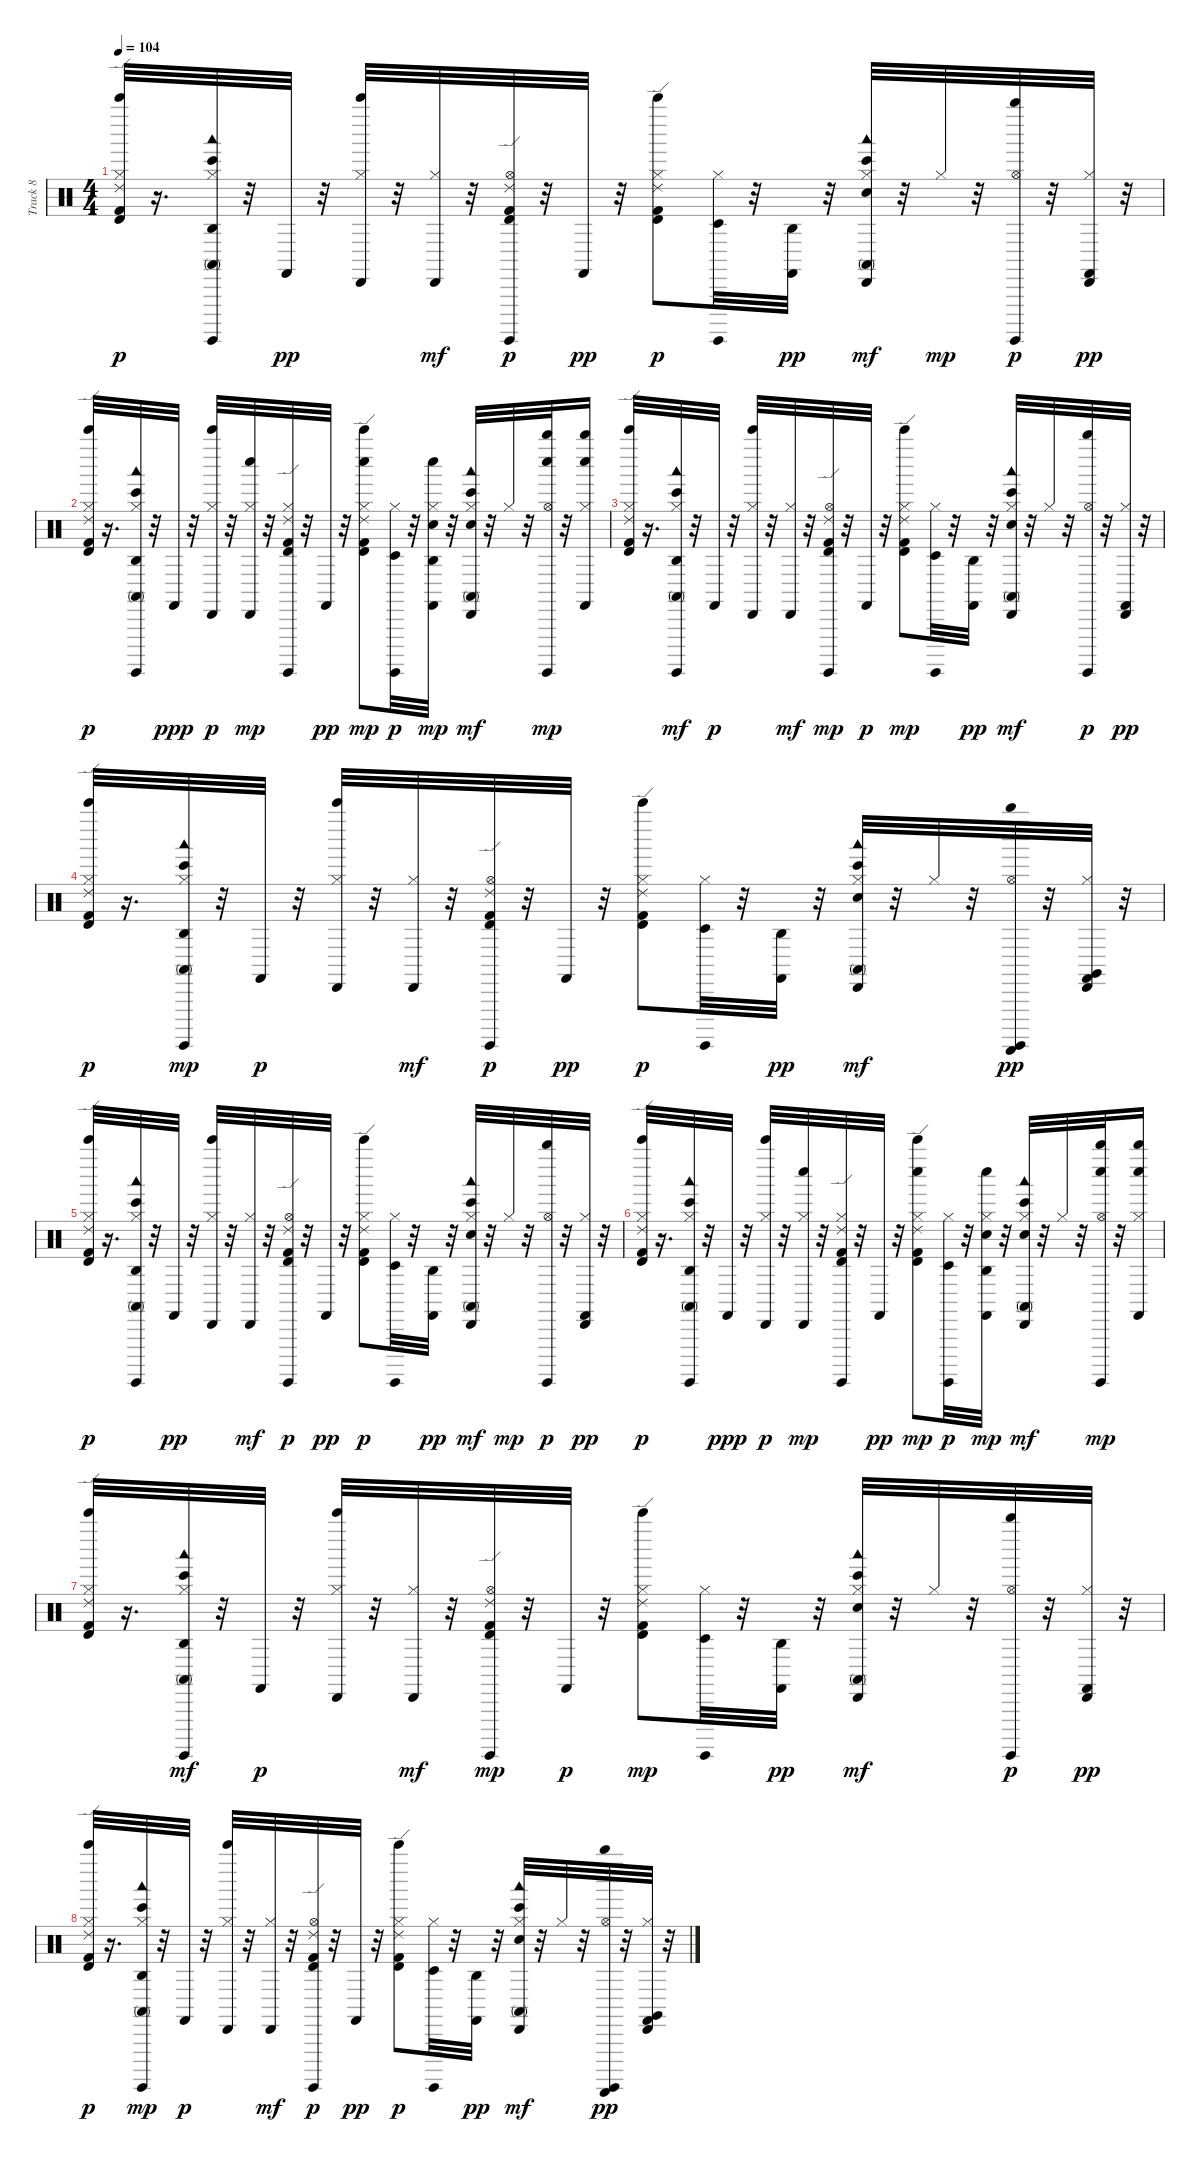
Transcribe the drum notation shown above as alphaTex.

\track ("Track 8" "Track 8") {instrument percussion}
\staff {score}
\articulation defaults
\ts (4 4)
\tempo 104
\clef neutral
\ks c
("Ride (edge) 2" "Timbale high (hit)" "Kick (hit) 2" "Hi-Hat (closed)" "Bell Tree (hit)").32{dy p} r.16{d} ("Bongo High (hit)" "Agogo high (hit)" "Conga high (mute)" "Hi-Hat (closed)" "Woodblock low (hit)" "Surdo (hit)").32 r.32 "Castanets (hit)".32{dy pp} r.32 ("Cabasa (hit)" "Hi-Hat (closed)" "Bell Tree (hit)").32 r.32 ("Cabasa (hit)" "Hi-Hat (closed)").32{dy mf} r.32 ("Ride (edge) 2" "Timbale high (hit)" "Kick (hit) 2" "Hi-Hat (open)" "Surdo (hit)").32{dy p} r.32 "Castanets (hit)".32{dy pp} r.32 ("Ride (edge) 2" "Timbale high (hit)" "Kick (hit) 2" "Hi-Hat (closed)" "Bell Tree (hit)").8{dy p} ("Timbale low (hit)" "Hi-Hat (closed)" "Surdo (hit)").32 r.32 ("Agogo high (hit)" "Castanets (hit)").32{dy pp} r.32 ("Conga high (mute)" "Cabasa (hit)" "Bongo High (hit)" "Electric Snare (hit)" "Hi-Hat (closed)" "Woodblock low (hit)").32{dy mf} r.32 "Hi-Hat (closed)".32{dy mp} r.32 ("Whistle high (hit)" "Hi-Hat (open)" "Surdo (hit)").32{dy p} r.32 ("Cabasa (hit)" "Hi-Hat (closed)" "Castanets (hit)").32{dy pp} r.32 |
("Ride (edge) 2" "Timbale high (hit)" "Kick (hit) 2" "Hi-Hat (closed)" "Bell Tree (hit)").32{dy p} r.16{d} ("Conga high (mute)" "Agogo high (hit)" "Bongo High (hit)" "Hi-Hat (closed)" "Woodblock low (hit)" "Surdo (hit)").32 r.32 "Castanets (hit)".32{dy ppp} r.32 ("Cabasa (hit)" "Hi-Hat (closed)" "Bell Tree (hit)").32{dy p} r.32 ("Cabasa (hit)" "Hi-Hat (closed)" "Whistle low (hit)").32{dy mp} r.32 ("Ride (edge) 2" "Timbale high (hit)" "Kick (hit) 2" "Hi-Hat (closed)" "Surdo (hit)").32 r.32 "Castanets (hit)".32{dy pp} r.32 ("Ride (edge) 2" "Timbale high (hit)" "Kick (hit) 2" "Hi-Hat (closed)" "Bell Tree (hit)" "Whistle low (hit)").8{dy mp} ("Timbale low (hit)" "Hi-Hat (closed)" "Surdo (hit)").32{dy p} r.32 ("Agogo high (hit)" "Electric Snare (hit)" "Hi-Hat (closed)" "Castanets (hit)" "Whistle low (hit)").32{dy mp} r.32 ("Bongo High (hit)" "Cabasa (hit)" "Conga high (mute)" "Hi-Hat (closed)" "Electric Snare (hit)" "Woodblock low (hit)").32{dy mf} r.32 "Hi-Hat (closed)".32 r.32 ("Whistle high (hit)" "Hi-Hat (open)" "Surdo (hit)" "Whistle low (hit)").32{dy mp} r.32 ("Whistle high (hit)" "Hi-Hat (closed)" "Castanets (hit)" "Whistle low (hit)").16 |
("Ride (edge) 2" "Timbale high (hit)" "Kick (hit) 2" "Hi-Hat (closed)" "Bell Tree (hit)").32 r.16{d} ("Bongo High (hit)" "Agogo high (hit)" "Conga high (mute)" "Hi-Hat (closed)" "Surdo (hit)" "Woodblock low (hit)").32{dy mf} r.32 "Castanets (hit)".32{dy p} r.32 ("Cabasa (hit)" "Hi-Hat (closed)" "Bell Tree (hit)").32 r.32 ("Cabasa (hit)" "Hi-Hat (closed)").32{dy mf} r.32 ("Ride (edge) 2" "Timbale high (hit)" "Kick (hit) 2" "Hi-Hat (open)" "Surdo (hit)").32{dy mp} r.32 "Castanets (hit)".32{dy p} r.32 ("Ride (edge) 2" "Timbale high (hit)" "Kick (hit) 2" "Hi-Hat (closed)" "Bell Tree (hit)").8{dy mp} ("Timbale low (hit)" "Hi-Hat (closed)" "Surdo (hit)").32 r.32 ("Agogo high (hit)" "Castanets (hit)").32{dy pp} r.32 ("Bongo High (hit)" "Cabasa (hit)" "Conga high (mute)" "Electric Snare (hit)" "Hi-Hat (closed)" "Woodblock low (hit)").32{dy mf} r.32 "Hi-Hat (closed)".32 r.32 ("Whistle high (hit)" "Hi-Hat (open)" "Surdo (hit)").32{dy p} r.32 ("Cabasa (hit)" "Hi-Hat (closed)" "Castanets (hit)").32{dy pp} r.32 |
("Ride (edge) 2" "Timbale high (hit)" "Kick (hit) 2" "Hi-Hat (closed)" "Bell Tree (hit)").32{dy p} r.16{d} ("Bongo High (hit)" "Agogo high (hit)" "Conga high (mute)" "Hi-Hat (closed)" "Woodblock low (hit)" "Surdo (hit)").32{dy mp} r.32 "Castanets (hit)".32{dy p} r.32 ("Cabasa (hit)" "Hi-Hat (closed)" "Bell Tree (hit)").32 r.32 ("Cabasa (hit)" "Hi-Hat (closed)").32{dy mf} r.32 ("Ride (edge) 2" "Timbale high (hit)" "Kick (hit) 2" "Hi-Hat (open)" "Surdo (hit)").32{dy p} r.32 "Castanets (hit)".32{dy pp} r.32 ("Ride (edge) 2" "Timbale high (hit)" "Kick (hit) 2" "Hi-Hat (closed)" "Bell Tree (hit)").8{dy p} ("Timbale low (hit)" "Hi-Hat (closed)" "Surdo (hit)").32 r.32 ("Agogo high (hit)" "Castanets (hit)").32{dy pp} r.32 ("Bongo High (hit)" "Cabasa (hit)" "Conga high (mute)" "Electric Snare (hit)" "Hi-Hat (closed)" "Woodblock low (hit)").32{dy mf} r.32 "Hi-Hat (closed)".32 r.32 ("Whistle high (hit)" "Hi-Hat (open)" "Surdo (hit)" "Guiro (scrap-return)").32{dy pp} r.32 ("Cabasa (hit)" "Hi-Hat (closed)" "Castanets (hit)" "Claves (hit)").32 r.32 |
("Ride (edge) 2" "Timbale high (hit)" "Kick (hit) 2" "Hi-Hat (closed)" "Bell Tree (hit)").32{dy p} r.16{d} ("Bongo High (hit)" "Agogo high (hit)" "Conga high (mute)" "Hi-Hat (closed)" "Woodblock low (hit)" "Surdo (hit)").32 r.32 "Castanets (hit)".32{dy pp} r.32 ("Cabasa (hit)" "Hi-Hat (closed)" "Bell Tree (hit)").32 r.32 ("Cabasa (hit)" "Hi-Hat (closed)").32{dy mf} r.32 ("Ride (edge) 2" "Timbale high (hit)" "Kick (hit) 2" "Hi-Hat (open)" "Surdo (hit)").32{dy p} r.32 "Castanets (hit)".32{dy pp} r.32 ("Ride (edge) 2" "Timbale high (hit)" "Kick (hit) 2" "Hi-Hat (closed)" "Bell Tree (hit)").8{dy p} ("Timbale low (hit)" "Hi-Hat (closed)" "Surdo (hit)").32 r.32 ("Agogo high (hit)" "Castanets (hit)").32{dy pp} r.32 ("Conga high (mute)" "Cabasa (hit)" "Bongo High (hit)" "Electric Snare (hit)" "Hi-Hat (closed)" "Woodblock low (hit)").32{dy mf} r.32 "Hi-Hat (closed)".32{dy mp} r.32 ("Whistle high (hit)" "Hi-Hat (open)" "Surdo (hit)").32{dy p} r.32 ("Cabasa (hit)" "Hi-Hat (closed)" "Castanets (hit)").32{dy pp} r.32 |
("Ride (edge) 2" "Timbale high (hit)" "Kick (hit) 2" "Hi-Hat (closed)" "Bell Tree (hit)").32{dy p} r.16{d} ("Conga high (mute)" "Agogo high (hit)" "Bongo High (hit)" "Hi-Hat (closed)" "Woodblock low (hit)" "Surdo (hit)").32 r.32 "Castanets (hit)".32{dy ppp} r.32 ("Cabasa (hit)" "Hi-Hat (closed)" "Bell Tree (hit)").32{dy p} r.32 ("Cabasa (hit)" "Hi-Hat (closed)" "Whistle low (hit)").32{dy mp} r.32 ("Ride (edge) 2" "Timbale high (hit)" "Kick (hit) 2" "Hi-Hat (closed)" "Surdo (hit)").32 r.32 "Castanets (hit)".32{dy pp} r.32 ("Ride (edge) 2" "Timbale high (hit)" "Kick (hit) 2" "Hi-Hat (closed)" "Bell Tree (hit)" "Whistle low (hit)").8{dy mp} ("Timbale low (hit)" "Hi-Hat (closed)" "Surdo (hit)").32{dy p} r.32 ("Agogo high (hit)" "Electric Snare (hit)" "Hi-Hat (closed)" "Castanets (hit)" "Whistle low (hit)").32{dy mp} r.32 ("Bongo High (hit)" "Cabasa (hit)" "Conga high (mute)" "Hi-Hat (closed)" "Electric Snare (hit)" "Woodblock low (hit)").32{dy mf} r.32 "Hi-Hat (closed)".32 r.32 ("Whistle high (hit)" "Hi-Hat (open)" "Surdo (hit)" "Whistle low (hit)").32{dy mp} r.32 ("Whistle high (hit)" "Hi-Hat (closed)" "Castanets (hit)" "Whistle low (hit)").16 |
("Ride (edge) 2" "Timbale high (hit)" "Kick (hit) 2" "Hi-Hat (closed)" "Bell Tree (hit)").32 r.16{d} ("Bongo High (hit)" "Agogo high (hit)" "Conga high (mute)" "Hi-Hat (closed)" "Surdo (hit)" "Woodblock low (hit)").32{dy mf} r.32 "Castanets (hit)".32{dy p} r.32 ("Cabasa (hit)" "Hi-Hat (closed)" "Bell Tree (hit)").32 r.32 ("Cabasa (hit)" "Hi-Hat (closed)").32{dy mf} r.32 ("Ride (edge) 2" "Timbale high (hit)" "Kick (hit) 2" "Hi-Hat (open)" "Surdo (hit)").32{dy mp} r.32 "Castanets (hit)".32{dy p} r.32 ("Ride (edge) 2" "Timbale high (hit)" "Kick (hit) 2" "Hi-Hat (closed)" "Bell Tree (hit)").8{dy mp} ("Timbale low (hit)" "Hi-Hat (closed)" "Surdo (hit)").32 r.32 ("Agogo high (hit)" "Castanets (hit)").32{dy pp} r.32 ("Bongo High (hit)" "Cabasa (hit)" "Conga high (mute)" "Electric Snare (hit)" "Hi-Hat (closed)" "Woodblock low (hit)").32{dy mf} r.32 "Hi-Hat (closed)".32 r.32 ("Whistle high (hit)" "Hi-Hat (open)" "Surdo (hit)").32{dy p} r.32 ("Cabasa (hit)" "Hi-Hat (closed)" "Castanets (hit)").32{dy pp} r.32 |
("Ride (edge) 2" "Timbale high (hit)" "Kick (hit) 2" "Hi-Hat (closed)" "Bell Tree (hit)").32{dy p} r.16{d} ("Bongo High (hit)" "Agogo high (hit)" "Conga high (mute)" "Hi-Hat (closed)" "Woodblock low (hit)" "Surdo (hit)").32{dy mp} r.32 "Castanets (hit)".32{dy p} r.32 ("Cabasa (hit)" "Hi-Hat (closed)" "Bell Tree (hit)").32 r.32 ("Cabasa (hit)" "Hi-Hat (closed)").32{dy mf} r.32 ("Ride (edge) 2" "Timbale high (hit)" "Kick (hit) 2" "Hi-Hat (open)" "Surdo (hit)").32{dy p} r.32 "Castanets (hit)".32{dy pp} r.32 ("Ride (edge) 2" "Timbale high (hit)" "Kick (hit) 2" "Hi-Hat (closed)" "Bell Tree (hit)").8{dy p} ("Timbale low (hit)" "Hi-Hat (closed)" "Surdo (hit)").32 r.32 ("Agogo high (hit)" "Castanets (hit)").32{dy pp} r.32 ("Bongo High (hit)" "Cabasa (hit)" "Conga high (mute)" "Electric Snare (hit)" "Hi-Hat (closed)" "Woodblock low (hit)").32{dy mf} r.32 "Hi-Hat (closed)".32 r.32 ("Whistle high (hit)" "Hi-Hat (open)" "Surdo (hit)" "Guiro (scrap-return)").32{dy pp} r.32 ("Cabasa (hit)" "Hi-Hat (closed)" "Castanets (hit)" "Claves (hit)").32 r.32
